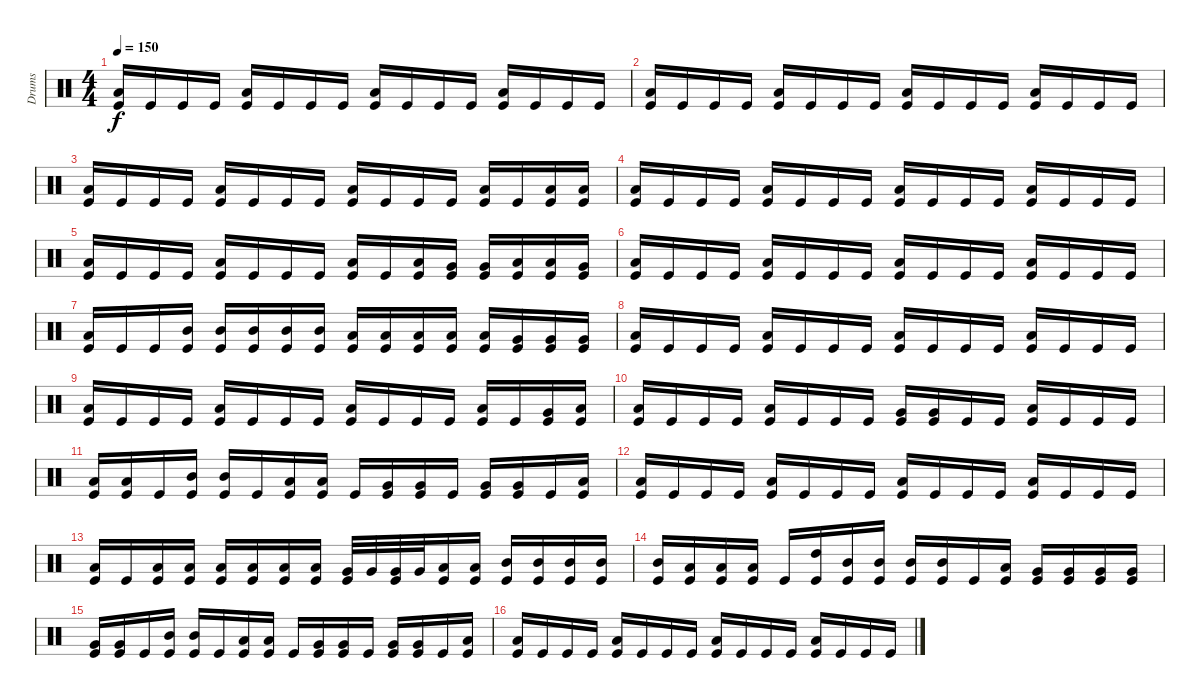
\track ("Drums" "Drums") {instrument percussion}
\staff {score}
\articulation defaults
\ts (4 4)
\tempo 150
\clef neutral
\ks c
("Kick (hit)" "Low Floor Tom (hit)").16{dy f} "Kick (hit)".16 "Kick (hit)".16 "Kick (hit)".16 ("Kick (hit)" "Low Floor Tom (hit)").16 "Kick (hit)".16 "Kick (hit)".16 "Kick (hit)".16 ("Kick (hit)" "Low Floor Tom (hit)").16 "Kick (hit)".16 "Kick (hit)".16 "Kick (hit)".16 ("Kick (hit)" "Low Floor Tom (hit)").16 "Kick (hit)".16 "Kick (hit)".16 "Kick (hit)".16 |
("Kick (hit)" "Low Floor Tom (hit)").16 "Kick (hit)".16 "Kick (hit)".16 "Kick (hit)".16 ("Kick (hit)" "Low Floor Tom (hit)").16 "Kick (hit)".16 "Kick (hit)".16 "Kick (hit)".16 ("Kick (hit)" "Low Floor Tom (hit)").16 "Kick (hit)".16 "Kick (hit)".16 "Kick (hit)".16 ("Kick (hit)" "Low Floor Tom (hit)").16 "Kick (hit)".16 "Kick (hit)".16 "Kick (hit)".16 |
("Kick (hit)" "Low Floor Tom (hit)").16 "Kick (hit)".16 "Kick (hit)".16 "Kick (hit)".16 ("Kick (hit)" "Low Floor Tom (hit)").16 "Kick (hit)".16 "Kick (hit)".16 "Kick (hit)".16 ("Kick (hit)" "Low Floor Tom (hit)").16 "Kick (hit)".16 "Kick (hit)".16 "Kick (hit)".16 ("Kick (hit)" "Low Floor Tom (hit)").16 "Kick (hit)".16 ("Kick (hit)" "Low Floor Tom (hit)").16 ("Kick (hit)" "Low Floor Tom (hit)").16 |
("Kick (hit)" "Low Floor Tom (hit)").16 "Kick (hit)".16 "Kick (hit)".16 "Kick (hit)".16 ("Kick (hit)" "Low Floor Tom (hit)").16 "Kick (hit)".16 "Kick (hit)".16 "Kick (hit)".16 ("Kick (hit)" "Low Floor Tom (hit)").16 "Kick (hit)".16 "Kick (hit)".16 "Kick (hit)".16 ("Kick (hit)" "Low Floor Tom (hit)").16 "Kick (hit)".16 "Kick (hit)".16 "Kick (hit)".16 |
("Kick (hit)" "Low Floor Tom (hit)").16 "Kick (hit)".16 "Kick (hit)".16 "Kick (hit)".16 ("Kick (hit)" "Low Floor Tom (hit)").16 "Kick (hit)".16 "Kick (hit)".16 "Kick (hit)".16 ("Kick (hit)" "Low Floor Tom (hit)").16 "Kick (hit)".16 ("Kick (hit)" "Low Floor Tom (hit)").16 ("Kick (hit)" "Very Low Tom (hit)").16 ("Kick (hit)" "Very Low Tom (hit)").16 ("Low Tom (hit)" "Kick (hit)").16 ("Low Tom (hit)" "Kick (hit)").16 ("Kick (hit)" "Very Low Tom (hit)").16 |
("Kick (hit)" "Low Floor Tom (hit)").16 "Kick (hit)".16 "Kick (hit)".16 "Kick (hit)".16 ("Kick (hit)" "Low Floor Tom (hit)").16 "Kick (hit)".16 "Kick (hit)".16 "Kick (hit)".16 ("Kick (hit)" "Low Floor Tom (hit)").16 "Kick (hit)".16 "Kick (hit)".16 "Kick (hit)".16 ("Kick (hit)" "Low Floor Tom (hit)").16 "Kick (hit)".16 "Kick (hit)".16 "Kick (hit)".16 |
("Kick (hit)" "Low Floor Tom (hit)").16 "Kick (hit)".16 "Kick (hit)".16 ("Mid Tom (hit)" "Kick (hit)").16 ("Mid Tom (hit)" "Kick (hit)").16 ("Mid Tom (hit)" "Kick (hit)").16 ("Mid Tom (hit)" "Kick (hit)").16 ("Mid Tom (hit)" "Kick (hit)").16 ("Low Tom (hit)" "Kick (hit)").16 ("Low Tom (hit)" "Kick (hit)").16 ("Low Tom (hit)" "Kick (hit)").16 ("Low Tom (hit)" "Kick (hit)").16 ("Low Tom (hit)" "Kick (hit)").16 ("Kick (hit)" "Very Low Tom (hit)").16 ("Kick (hit)" "Very Low Tom (hit)").16 ("Kick (hit)" "Very Low Tom (hit)").16 |
("Kick (hit)" "Low Floor Tom (hit)").16 "Kick (hit)".16 "Kick (hit)".16 "Kick (hit)".16 ("Kick (hit)" "Low Floor Tom (hit)").16 "Kick (hit)".16 "Kick (hit)".16 "Kick (hit)".16 ("Kick (hit)" "Low Floor Tom (hit)").16 "Kick (hit)".16 "Kick (hit)".16 "Kick (hit)".16 ("Kick (hit)" "Low Floor Tom (hit)").16 "Kick (hit)".16 "Kick (hit)".16 "Kick (hit)".16 |
("Kick (hit)" "Low Floor Tom (hit)").16 "Kick (hit)".16 "Kick (hit)".16 "Kick (hit)".16 ("Kick (hit)" "Low Floor Tom (hit)").16 "Kick (hit)".16 "Kick (hit)".16 "Kick (hit)".16 ("Kick (hit)" "Low Floor Tom (hit)").16 "Kick (hit)".16 "Kick (hit)".16 "Kick (hit)".16 ("Kick (hit)" "Low Floor Tom (hit)").16 "Kick (hit)".16 ("Kick (hit)" "Very Low Tom (hit)").16 ("Low Tom (hit)" "Kick (hit)").16 |
("Kick (hit)" "Low Floor Tom (hit)").16 "Kick (hit)".16 "Kick (hit)".16 "Kick (hit)".16 ("Kick (hit)" "Low Floor Tom (hit)").16 "Kick (hit)".16 "Kick (hit)".16 "Kick (hit)".16 ("Kick (hit)" "Very Low Tom (hit)").16 ("Kick (hit)" "Very Low Tom (hit)").16 "Kick (hit)".16 "Kick (hit)".16 ("Kick (hit)" "Low Floor Tom (hit)").16 "Kick (hit)".16 "Kick (hit)".16 "Kick (hit)".16 |
("Low Tom (hit)" "Kick (hit)").16 ("Low Tom (hit)" "Kick (hit)").16 "Kick (hit)".16 ("Mid Tom (hit)" "Kick (hit)").16 ("Mid Tom (hit)" "Kick (hit)").16 "Kick (hit)".16 ("Low Tom (hit)" "Kick (hit)").16 ("Low Tom (hit)" "Kick (hit)").16 "Kick (hit)".16 ("Kick (hit)" "Very Low Tom (hit)").16 ("Kick (hit)" "Very Low Tom (hit)").16 "Kick (hit)".16 ("Kick (hit)" "Very Low Tom (hit)").16 ("Kick (hit)" "Very Low Tom (hit)").16 "Kick (hit)".16 ("Kick (hit)" "Low Floor Tom (hit)").16 |
("Kick (hit)" "Low Floor Tom (hit)").16 "Kick (hit)".16 "Kick (hit)".16 "Kick (hit)".16 ("Kick (hit)" "Low Floor Tom (hit)").16 "Kick (hit)".16 "Kick (hit)".16 "Kick (hit)".16 ("Kick (hit)" "Low Floor Tom (hit)").16 "Kick (hit)".16 "Kick (hit)".16 "Kick (hit)".16 ("Kick (hit)" "Low Floor Tom (hit)").16 "Kick (hit)".16 "Kick (hit)".16 "Kick (hit)".16 |
("Kick (hit)" "Low Floor Tom (hit)").16 "Kick (hit)".16 ("Low Tom (hit)" "Kick (hit)").16 ("Low Tom (hit)" "Kick (hit)").16 ("Low Tom (hit)" "Kick (hit)").16 ("Low Tom (hit)" "Kick (hit)").16 ("Low Tom (hit)" "Kick (hit)").16 ("Low Tom (hit)" "Kick (hit)").16 ("Kick (hit)" "Very Low Tom (hit)").32 "Very Low Tom (hit)".32 ("Kick (hit)" "Very Low Tom (hit)").32 "Very Low Tom (hit)".32 ("Low Tom (hit)" "Kick (hit)").16 ("Low Tom (hit)" "Kick (hit)").16 ("Mid Tom (hit)" "Kick (hit)").16 ("Mid Tom (hit)" "Kick (hit)").16 ("Mid Tom (hit)" "Kick (hit)").16 ("Mid Tom (hit)" "Kick (hit)").16 |
("Mid Tom (hit)" "Kick (hit)").16 ("Low Tom (hit)" "Kick (hit)").16 ("Low Tom (hit)" "Kick (hit)").16 ("Low Tom (hit)" "Kick (hit)").16 "Kick (hit)".16 ("High Tom (hit)" "Kick (hit)").16 ("Mid Tom (hit)" "Kick (hit)").16 ("Mid Tom (hit)" "Kick (hit)").16 ("Mid Tom (hit)" "Kick (hit)").16 ("Mid Tom (hit)" "Kick (hit)").16 "Kick (hit)".16 ("Low Tom (hit)" "Kick (hit)").16 ("Very Low Tom (hit)" "Kick (hit)").16 ("Very Low Tom (hit)" "Kick (hit)").16 ("Very Low Tom (hit)" "Kick (hit)").16 ("Very Low Tom (hit)" "Kick (hit)").16 |
("Kick (hit)" "Very Low Tom (hit)").16 ("Kick (hit)" "Very Low Tom (hit)").16 "Kick (hit)".16 ("Mid Tom (hit)" "Kick (hit)").16 ("Mid Tom (hit)" "Kick (hit)").16 "Kick (hit)".16 ("Low Tom (hit)" "Kick (hit)").16 ("Low Tom (hit)" "Kick (hit)").16 "Kick (hit)".16 ("Kick (hit)" "Very Low Tom (hit)").16 ("Kick (hit)" "Very Low Tom (hit)").16 "Kick (hit)".16 ("Kick (hit)" "Very Low Tom (hit)").16 ("Kick (hit)" "Very Low Tom (hit)").16 "Kick (hit)".16 ("Kick (hit)" "Low Floor Tom (hit)").16 |
("Kick (hit)" "Low Floor Tom (hit)").16 "Kick (hit)".16 "Kick (hit)".16 "Kick (hit)".16 ("Kick (hit)" "Low Floor Tom (hit)").16 "Kick (hit)".16 "Kick (hit)".16 "Kick (hit)".16 ("Kick (hit)" "Low Floor Tom (hit)").16 "Kick (hit)".16 "Kick (hit)".16 "Kick (hit)".16 ("Kick (hit)" "Low Floor Tom (hit)").16 "Kick (hit)".16 "Kick (hit)".16 "Kick (hit)".16
